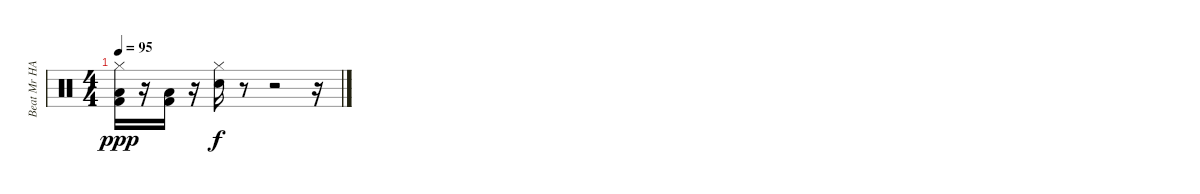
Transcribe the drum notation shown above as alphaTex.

\track ("Beat Mr HAHN" "Beat Mr HA") {instrument percussion}
\staff {score}
\articulation defaults
\ts (4 4)
\tempo 95
\clef neutral
\ks c
("Hi-Hat (closed)" "Low Floor Tom (hit)" "Kick (hit) 2").16{dy ppp} r.16 ("Low Floor Tom (hit)" "Kick (hit) 2").16 r.16 ("Hi-Hat (closed)" "Electric Snare (hit)").16{dy f} r.8 r.2 r.16
